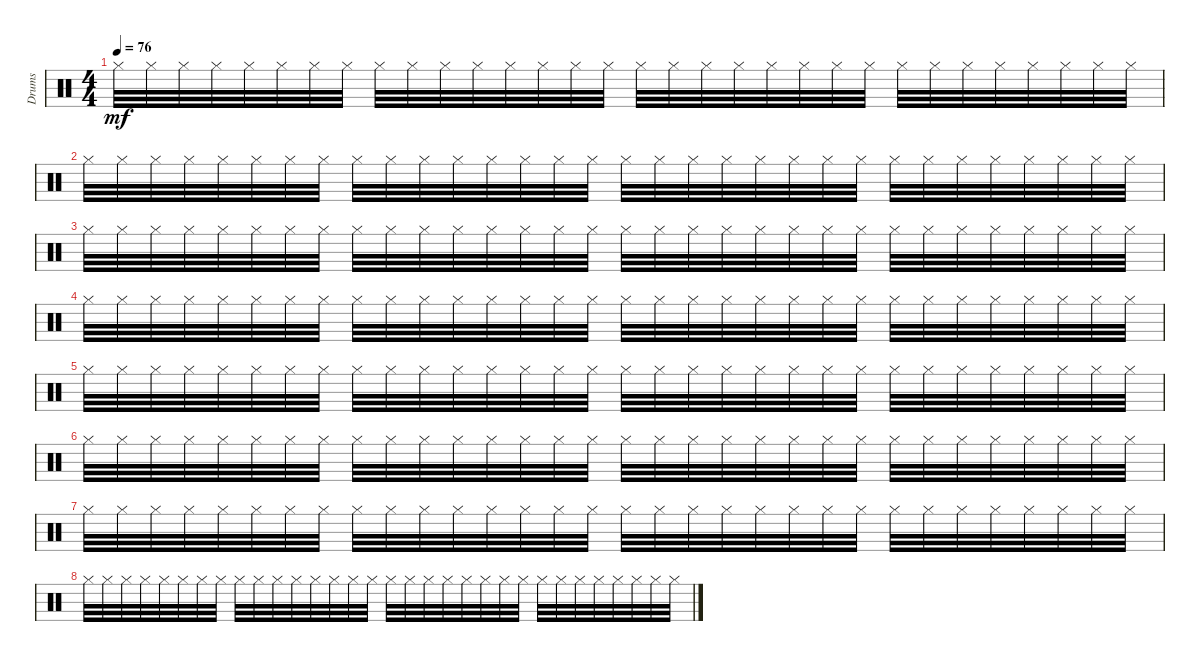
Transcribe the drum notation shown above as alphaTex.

\track ("Drumkit" "Drums") {instrument percussion}
\staff {score}
\articulation defaults
\ts (4 4)
\tempo 76
\clef neutral
\ks c "Hi-Hat (closed)".32{dy mf} "Hi-Hat (closed)".32 "Hi-Hat (closed)".32 "Hi-Hat (closed)".32 "Hi-Hat (closed)".32 "Hi-Hat (closed)".32 "Hi-Hat (closed)".32 "Hi-Hat (closed)".32 "Hi-Hat (closed)".32 "Hi-Hat (closed)".32 "Hi-Hat (closed)".32 "Hi-Hat (closed)".32 "Hi-Hat (closed)".32 "Hi-Hat (closed)".32 "Hi-Hat (closed)".32 "Hi-Hat (closed)".32 "Hi-Hat (closed)".32 "Hi-Hat (closed)".32 "Hi-Hat (closed)".32 "Hi-Hat (closed)".32 "Hi-Hat (closed)".32 "Hi-Hat (closed)".32 "Hi-Hat (closed)".32 "Hi-Hat (closed)".32 "Hi-Hat (closed)".32 "Hi-Hat (closed)".32 "Hi-Hat (closed)".32 "Hi-Hat (closed)".32 "Hi-Hat (closed)".32 "Hi-Hat (closed)".32 "Hi-Hat (closed)".32 "Hi-Hat (closed)".32
|
"Hi-Hat (closed)".32 "Hi-Hat (closed)".32 "Hi-Hat (closed)".32 "Hi-Hat (closed)".32 "Hi-Hat (closed)".32 "Hi-Hat (closed)".32 "Hi-Hat (closed)".32 "Hi-Hat (closed)".32 "Hi-Hat (closed)".32 "Hi-Hat (closed)".32 "Hi-Hat (closed)".32 "Hi-Hat (closed)".32 "Hi-Hat (closed)".32 "Hi-Hat (closed)".32 "Hi-Hat (closed)".32 "Hi-Hat (closed)".32 "Hi-Hat (closed)".32 "Hi-Hat (closed)".32 "Hi-Hat (closed)".32 "Hi-Hat (closed)".32 "Hi-Hat (closed)".32 "Hi-Hat (closed)".32 "Hi-Hat (closed)".32 "Hi-Hat (closed)".32 "Hi-Hat (closed)".32 "Hi-Hat (closed)".32 "Hi-Hat (closed)".32 "Hi-Hat (closed)".32 "Hi-Hat (closed)".32 "Hi-Hat (closed)".32 "Hi-Hat (closed)".32 "Hi-Hat (closed)".32 |
"Hi-Hat (closed)".32 "Hi-Hat (closed)".32 "Hi-Hat (closed)".32 "Hi-Hat (closed)".32 "Hi-Hat (closed)".32 "Hi-Hat (closed)".32 "Hi-Hat (closed)".32 "Hi-Hat (closed)".32 "Hi-Hat (closed)".32 "Hi-Hat (closed)".32 "Hi-Hat (closed)".32 "Hi-Hat (closed)".32 "Hi-Hat (closed)".32 "Hi-Hat (closed)".32 "Hi-Hat (closed)".32 "Hi-Hat (closed)".32 "Hi-Hat (closed)".32 "Hi-Hat (closed)".32 "Hi-Hat (closed)".32 "Hi-Hat (closed)".32 "Hi-Hat (closed)".32 "Hi-Hat (closed)".32 "Hi-Hat (closed)".32 "Hi-Hat (closed)".32 "Hi-Hat (closed)".32 "Hi-Hat (closed)".32 "Hi-Hat (closed)".32 "Hi-Hat (closed)".32 "Hi-Hat (closed)".32 "Hi-Hat (closed)".32 "Hi-Hat (closed)".32 "Hi-Hat (closed)".32 |
"Hi-Hat (closed)".32 "Hi-Hat (closed)".32 "Hi-Hat (closed)".32 "Hi-Hat (closed)".32 "Hi-Hat (closed)".32 "Hi-Hat (closed)".32 "Hi-Hat (closed)".32 "Hi-Hat (closed)".32 "Hi-Hat (closed)".32 "Hi-Hat (closed)".32 "Hi-Hat (closed)".32 "Hi-Hat (closed)".32 "Hi-Hat (closed)".32 "Hi-Hat (closed)".32 "Hi-Hat (closed)".32 "Hi-Hat (closed)".32 "Hi-Hat (closed)".32 "Hi-Hat (closed)".32 "Hi-Hat (closed)".32 "Hi-Hat (closed)".32 "Hi-Hat (closed)".32 "Hi-Hat (closed)".32 "Hi-Hat (closed)".32 "Hi-Hat (closed)".32 "Hi-Hat (closed)".32 "Hi-Hat (closed)".32 "Hi-Hat (closed)".32 "Hi-Hat (closed)".32 "Hi-Hat (closed)".32 "Hi-Hat (closed)".32 "Hi-Hat (closed)".32 "Hi-Hat (closed)".32 |
"Hi-Hat (closed)".32 "Hi-Hat (closed)".32 "Hi-Hat (closed)".32 "Hi-Hat (closed)".32 "Hi-Hat (closed)".32 "Hi-Hat (closed)".32 "Hi-Hat (closed)".32 "Hi-Hat (closed)".32 "Hi-Hat (closed)".32 "Hi-Hat (closed)".32 "Hi-Hat (closed)".32 "Hi-Hat (closed)".32 "Hi-Hat (closed)".32 "Hi-Hat (closed)".32 "Hi-Hat (closed)".32 "Hi-Hat (closed)".32 "Hi-Hat (closed)".32 "Hi-Hat (closed)".32 "Hi-Hat (closed)".32 "Hi-Hat (closed)".32 "Hi-Hat (closed)".32 "Hi-Hat (closed)".32 "Hi-Hat (closed)".32 "Hi-Hat (closed)".32 "Hi-Hat (closed)".32 "Hi-Hat (closed)".32 "Hi-Hat (closed)".32 "Hi-Hat (closed)".32 "Hi-Hat (closed)".32 "Hi-Hat (closed)".32 "Hi-Hat (closed)".32 "Hi-Hat (closed)".32 |
"Hi-Hat (closed)".32 "Hi-Hat (closed)".32 "Hi-Hat (closed)".32 "Hi-Hat (closed)".32 "Hi-Hat (closed)".32 "Hi-Hat (closed)".32 "Hi-Hat (closed)".32 "Hi-Hat (closed)".32 "Hi-Hat (closed)".32 "Hi-Hat (closed)".32 "Hi-Hat (closed)".32 "Hi-Hat (closed)".32 "Hi-Hat (closed)".32 "Hi-Hat (closed)".32 "Hi-Hat (closed)".32 "Hi-Hat (closed)".32 "Hi-Hat (closed)".32 "Hi-Hat (closed)".32 "Hi-Hat (closed)".32 "Hi-Hat (closed)".32 "Hi-Hat (closed)".32 "Hi-Hat (closed)".32 "Hi-Hat (closed)".32 "Hi-Hat (closed)".32 "Hi-Hat (closed)".32 "Hi-Hat (closed)".32 "Hi-Hat (closed)".32 "Hi-Hat (closed)".32 "Hi-Hat (closed)".32 "Hi-Hat (closed)".32 "Hi-Hat (closed)".32 "Hi-Hat (closed)".32 |
"Hi-Hat (closed)".32 "Hi-Hat (closed)".32 "Hi-Hat (closed)".32 "Hi-Hat (closed)".32 "Hi-Hat (closed)".32 "Hi-Hat (closed)".32 "Hi-Hat (closed)".32 "Hi-Hat (closed)".32 "Hi-Hat (closed)".32 "Hi-Hat (closed)".32 "Hi-Hat (closed)".32 "Hi-Hat (closed)".32 "Hi-Hat (closed)".32 "Hi-Hat (closed)".32 "Hi-Hat (closed)".32 "Hi-Hat (closed)".32 "Hi-Hat (closed)".32 "Hi-Hat (closed)".32 "Hi-Hat (closed)".32 "Hi-Hat (closed)".32 "Hi-Hat (closed)".32 "Hi-Hat (closed)".32 "Hi-Hat (closed)".32 "Hi-Hat (closed)".32 "Hi-Hat (closed)".32 "Hi-Hat (closed)".32 "Hi-Hat (closed)".32 "Hi-Hat (closed)".32 "Hi-Hat (closed)".32 "Hi-Hat (closed)".32 "Hi-Hat (closed)".32 "Hi-Hat (closed)".32 |
"Hi-Hat (closed)".32 "Hi-Hat (closed)".32 "Hi-Hat (closed)".32 "Hi-Hat (closed)".32 "Hi-Hat (closed)".32 "Hi-Hat (closed)".32 "Hi-Hat (closed)".32 "Hi-Hat (closed)".32 "Hi-Hat (closed)".32 "Hi-Hat (closed)".32 "Hi-Hat (closed)".32 "Hi-Hat (closed)".32 "Hi-Hat (closed)".32 "Hi-Hat (closed)".32 "Hi-Hat (closed)".32 "Hi-Hat (closed)".32 "Hi-Hat (closed)".32 "Hi-Hat (closed)".32 "Hi-Hat (closed)".32 "Hi-Hat (closed)".32 "Hi-Hat (closed)".32 "Hi-Hat (closed)".32 "Hi-Hat (closed)".32 "Hi-Hat (closed)".32 "Hi-Hat (closed)".32 "Hi-Hat (closed)".32 "Hi-Hat (closed)".32 "Hi-Hat (closed)".32 "Hi-Hat (closed)".32 "Hi-Hat (closed)".32 "Hi-Hat (closed)".32 "Hi-Hat (closed)".32
